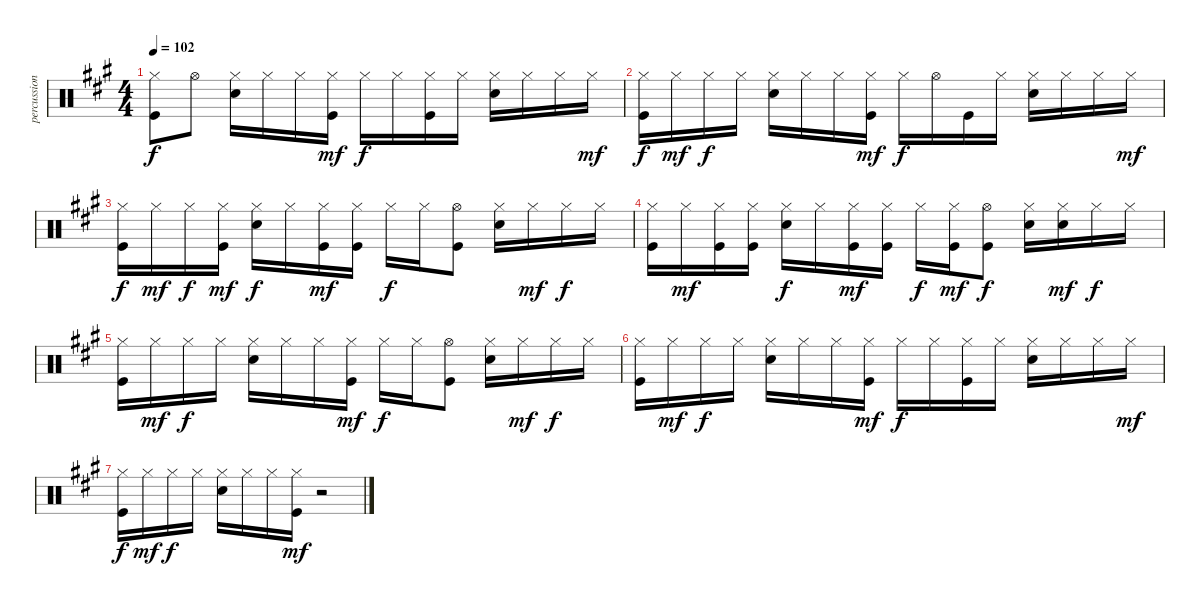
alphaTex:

\track ("percussion" "percussion") {instrument percussion}
\staff {score}
\articulation defaults
\ts (4 4)
\tempo 102
\clef neutral
\ks a
("Hi-Hat (closed)" "Kick (hit)").8{dy f} "Hi-Hat (open)".8 ("Electric Snare (hit)" "Hi-Hat (closed)").16 "Hi-Hat (closed)".16 "Hi-Hat (closed)".16 ("Hi-Hat (closed)" "Kick (hit)").16{dy mf} "Hi-Hat (closed)".16{dy f} "Hi-Hat (closed)".16 ("Hi-Hat (closed)" "Kick (hit)").16 "Hi-Hat (closed)".16 ("Electric Snare (hit)" "Hi-Hat (closed)").16 "Hi-Hat (closed)".16 "Hi-Hat (closed)".16 "Hi-Hat (closed)".16{dy mf} |
("Hi-Hat (closed)" "Kick (hit)").16{dy f} "Hi-Hat (closed)".16{dy mf} "Hi-Hat (closed)".16{dy f} "Hi-Hat (closed)".16 ("Electric Snare (hit)" "Hi-Hat (closed)").16 "Hi-Hat (closed)".16 "Hi-Hat (closed)".16 ("Hi-Hat (closed)" "Kick (hit)").16{dy mf} "Hi-Hat (closed)".16{dy f} "Hi-Hat (open)".16 "Kick (hit)".16 "Hi-Hat (closed)".16 ("Electric Snare (hit)" "Hi-Hat (closed)").16 "Hi-Hat (closed)".16 "Hi-Hat (closed)".16 "Hi-Hat (closed)".16{dy mf} |
("Hi-Hat (closed)" "Kick (hit)").16{dy f} "Hi-Hat (closed)".16{dy mf} "Hi-Hat (closed)".16{dy f} ("Hi-Hat (closed)" "Kick (hit)").16{dy mf} ("Electric Snare (hit)" "Hi-Hat (closed)").16{dy f} "Hi-Hat (closed)".16 ("Hi-Hat (closed)" "Kick (hit)").16{dy mf} ("Hi-Hat (closed)" "Kick (hit)").16 "Hi-Hat (closed)".16{dy f} "Hi-Hat (closed)".16 ("Hi-Hat (open)" "Kick (hit)").8 ("Electric Snare (hit)" "Hi-Hat (closed)").16 "Hi-Hat (closed)".16{dy mf} "Hi-Hat (closed)".16{dy f} "Hi-Hat (closed)".16 |
("Hi-Hat (closed)" "Kick (hit)").16 "Hi-Hat (closed)".16{dy mf} ("Hi-Hat (closed)" "Kick (hit)").16 ("Hi-Hat (closed)" "Kick (hit)").16 ("Electric Snare (hit)" "Hi-Hat (closed)").16{dy f} "Hi-Hat (closed)".16 ("Hi-Hat (closed)" "Kick (hit)").16{dy mf} ("Hi-Hat (closed)" "Kick (hit)").16 "Hi-Hat (closed)".16{dy f} ("Hi-Hat (closed)" "Kick (hit)").16{dy mf} ("Hi-Hat (open)" "Kick (hit)").8{dy f} ("Electric Snare (hit)" "Hi-Hat (closed)").16 ("Electric Snare (hit)" "Hi-Hat (closed)").16{dy mf} "Hi-Hat (closed)".16{dy f} "Hi-Hat (closed)".16 |
("Hi-Hat (closed)" "Kick (hit)").16 "Hi-Hat (closed)".16{dy mf} "Hi-Hat (closed)".16{dy f} "Hi-Hat (closed)".16 ("Electric Snare (hit)" "Hi-Hat (closed)").16 "Hi-Hat (closed)".16 "Hi-Hat (closed)".16 ("Hi-Hat (closed)" "Kick (hit)").16{dy mf} "Hi-Hat (closed)".16{dy f} "Hi-Hat (closed)".16 ("Hi-Hat (open)" "Kick (hit)").8 ("Electric Snare (hit)" "Hi-Hat (closed)").16 "Hi-Hat (closed)".16{dy mf} "Hi-Hat (closed)".16{dy f} "Hi-Hat (closed)".16 |
("Hi-Hat (closed)" "Kick (hit)").16 "Hi-Hat (closed)".16{dy mf} "Hi-Hat (closed)".16{dy f} "Hi-Hat (closed)".16 ("Electric Snare (hit)" "Hi-Hat (closed)").16 "Hi-Hat (closed)".16 "Hi-Hat (closed)".16 ("Hi-Hat (closed)" "Kick (hit)").16{dy mf} "Hi-Hat (closed)".16{dy f} "Hi-Hat (closed)".16 ("Hi-Hat (closed)" "Kick (hit)").16 "Hi-Hat (closed)".16 ("Electric Snare (hit)" "Hi-Hat (closed)").16 "Hi-Hat (closed)".16 "Hi-Hat (closed)".16 "Hi-Hat (closed)".16{dy mf} |
("Hi-Hat (closed)" "Kick (hit)").16{dy f} "Hi-Hat (closed)".16{dy mf} "Hi-Hat (closed)".16{dy f} "Hi-Hat (closed)".16 ("Electric Snare (hit)" "Hi-Hat (closed)").16 "Hi-Hat (closed)".16 "Hi-Hat (closed)".16 ("Hi-Hat (closed)" "Kick (hit)").16{dy mf} r.2
